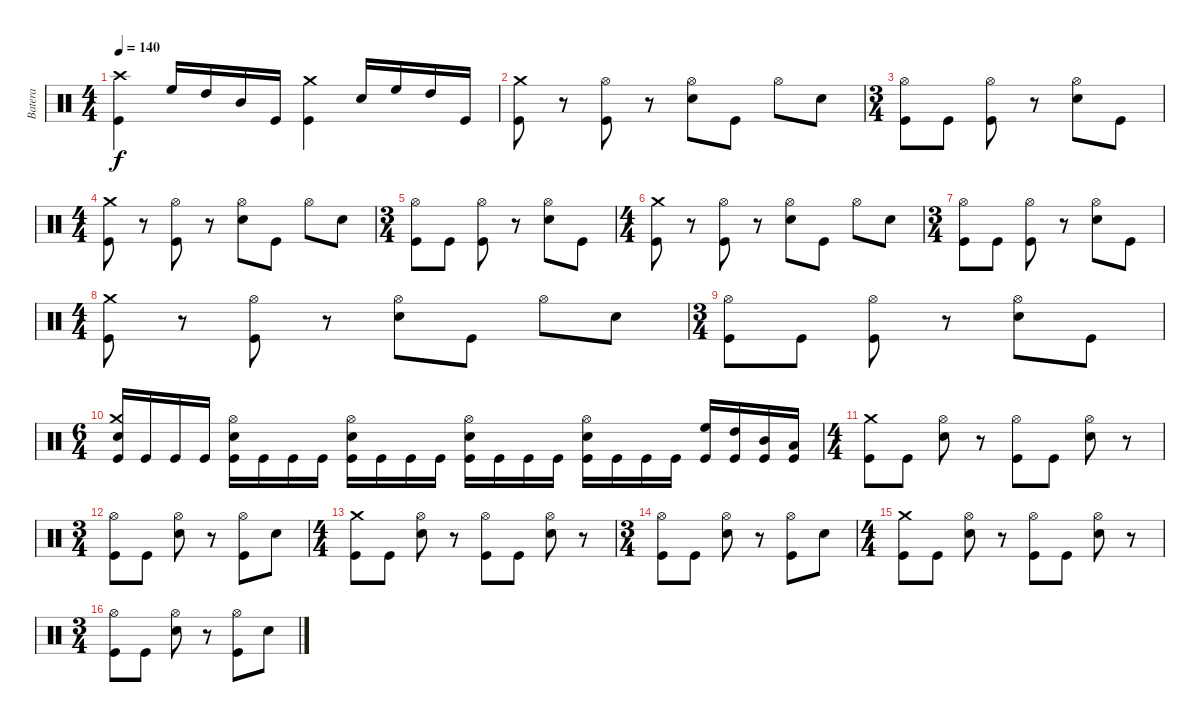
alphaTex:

\track ("Batera" "Batera") {instrument percussion}
\staff {score}
\articulation defaults
\ts (4 4)
\tempo 140
\clef neutral
\ks c
("Crash high (hit)" "Kick (hit)").4{dy f} "High Floor Tom (hit)".16 "High Tom (hit)".16 "Mid Tom (hit)".16 "Kick (hit)".16 ("Crash medium (hit)" "Kick (hit)").4 "Snare (hit) 2".16 "High Floor Tom (hit)".16 "High Tom (hit)".16 "Kick (hit)".16 |
("Crash medium (hit)" "Kick (hit)").8 r.8 ("Hi-Hat (open)" "Kick (hit)").8 r.8 ("Hi-Hat (open)" "Snare (hit) 2").8 "Kick (hit)".8 "Hi-Hat (open)".8 "Snare (hit) 2".8 |
\ts (3 4)
("Hi-Hat (open)" "Kick (hit)").8 "Kick (hit)".8 ("Hi-Hat (open)" "Kick (hit)").8 r.8 ("Hi-Hat (open)" "Snare (hit) 2").8 "Kick (hit)".8 |
\ts (4 4)
("Crash medium (hit)" "Kick (hit)").8 r.8 ("Hi-Hat (open)" "Kick (hit)").8 r.8 ("Hi-Hat (open)" "Snare (hit) 2").8 "Kick (hit)".8 "Hi-Hat (open)".8 "Snare (hit) 2".8 |
\ts (3 4)
("Hi-Hat (open)" "Kick (hit)").8 "Kick (hit)".8 ("Hi-Hat (open)" "Kick (hit)").8 r.8 ("Hi-Hat (open)" "Snare (hit) 2").8 "Kick (hit)".8 |
\ts (4 4)
("Crash medium (hit)" "Kick (hit)").8 r.8 ("Hi-Hat (open)" "Kick (hit)").8 r.8 ("Hi-Hat (open)" "Snare (hit) 2").8 "Kick (hit)".8 "Hi-Hat (open)".8 "Snare (hit) 2".8 |
\ts (3 4)
("Hi-Hat (open)" "Kick (hit)").8 "Kick (hit)".8 ("Hi-Hat (open)" "Kick (hit)").8 r.8 ("Hi-Hat (open)" "Snare (hit) 2").8 "Kick (hit)".8 |
\ts (4 4)
("Crash medium (hit)" "Kick (hit)").8 r.8 ("Hi-Hat (open)" "Kick (hit)").8 r.8 ("Hi-Hat (open)" "Snare (hit) 2").8 "Kick (hit)".8 "Hi-Hat (open)".8 "Snare (hit) 2".8 |
\ts (3 4)
("Hi-Hat (open)" "Kick (hit)").8 "Kick (hit)".8 ("Hi-Hat (open)" "Kick (hit)").8 r.8 ("Hi-Hat (open)" "Snare (hit) 2").8 "Kick (hit)".8 |
\ts (6 4)
("Crash medium (hit)" "Snare (hit) 2" "Kick (hit)").16 "Kick (hit)".16 "Kick (hit)".16 "Kick (hit)".16 ("Hi-Hat (open)" "Snare (hit) 2" "Kick (hit)").16 "Kick (hit)".16 "Kick (hit)".16 "Kick (hit)".16 ("Hi-Hat (open)" "Snare (hit) 2" "Kick (hit)").16 "Kick (hit)".16 "Kick (hit)".16 "Kick (hit)".16 ("Hi-Hat (open)" "Snare (hit) 2" "Kick (hit)").16 "Kick (hit)".16 "Kick (hit)".16 "Kick (hit)".16 ("Hi-Hat (open)" "Snare (hit) 2" "Kick (hit)").16 "Kick (hit)".16 "Kick (hit)".16 "Kick (hit)".16 ("High Floor Tom (hit)" "Kick (hit)").16 ("High Tom (hit)" "Kick (hit)").16 ("Mid Tom (hit)" "Kick (hit)").16 ("Low Tom (hit)" "Kick (hit)").16 |
\ts (4 4)
("Crash medium (hit)" "Kick (hit)").8 "Kick (hit)".8 ("Hi-Hat (open)" "Snare (hit) 2").8 r.8 ("Hi-Hat (open)" "Kick (hit)").8 "Kick (hit)".8 ("Hi-Hat (open)" "Snare (hit) 2").8 r.8 |
\ts (3 4)
("Hi-Hat (open)" "Kick (hit)").8 "Kick (hit)".8 ("Hi-Hat (open)" "Snare (hit) 2").8 r.8 ("Hi-Hat (open)" "Kick (hit)").8 "Snare (hit) 2".8 |
\ts (4 4)
("Crash medium (hit)" "Kick (hit)").8 "Kick (hit)".8 ("Hi-Hat (open)" "Snare (hit) 2").8 r.8 ("Hi-Hat (open)" "Kick (hit)").8 "Kick (hit)".8 ("Hi-Hat (open)" "Snare (hit) 2").8 r.8 |
\ts (3 4)
("Hi-Hat (open)" "Kick (hit)").8 "Kick (hit)".8 ("Hi-Hat (open)" "Snare (hit) 2").8 r.8 ("Hi-Hat (open)" "Kick (hit)").8 "Snare (hit) 2".8 |
\ts (4 4)
("Crash medium (hit)" "Kick (hit)").8 "Kick (hit)".8 ("Hi-Hat (open)" "Snare (hit) 2").8 r.8 ("Hi-Hat (open)" "Kick (hit)").8 "Kick (hit)".8 ("Hi-Hat (open)" "Snare (hit) 2").8 r.8 |
\ts (3 4)
("Hi-Hat (open)" "Kick (hit)").8 "Kick (hit)".8 ("Hi-Hat (open)" "Snare (hit) 2").8 r.8 ("Hi-Hat (open)" "Kick (hit)").8 "Snare (hit) 2".8
